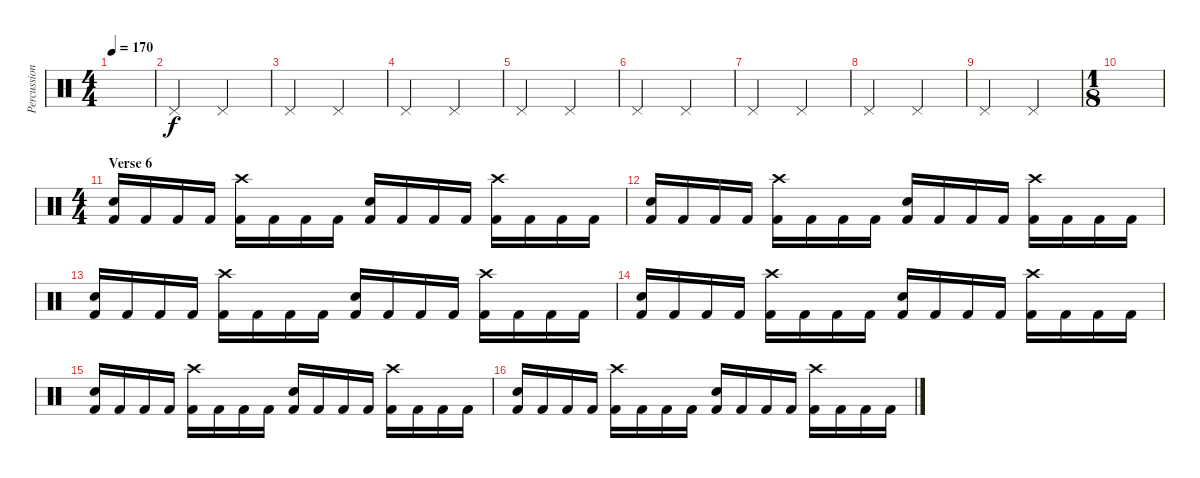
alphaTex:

\track ("Percussion" "Percussion") {instrument percussion}
\staff {score}
\articulation defaults
\ts (4 4)
\tempo 170
\clef neutral
\ks c
|
"Pedal Hi-Hat (hit)".2 "Pedal Hi-Hat (hit)".2 |
"Pedal Hi-Hat (hit)".2 "Pedal Hi-Hat (hit)".2 |
"Pedal Hi-Hat (hit)".2 "Pedal Hi-Hat (hit)".2 |
"Pedal Hi-Hat (hit)".2 "Pedal Hi-Hat (hit)".2 |
"Pedal Hi-Hat (hit)".2 "Pedal Hi-Hat (hit)".2 |
"Pedal Hi-Hat (hit)".2 "Pedal Hi-Hat (hit)".2 |
"Pedal Hi-Hat (hit)".2 "Pedal Hi-Hat (hit)".2 |
"Pedal Hi-Hat (hit)".2 "Pedal Hi-Hat (hit)".2 |
\ts (1 8)
|
\ts (4 4)
\section ("" "Verse 6")
("Electric Snare (hit)" "Kick (hit) 2").16 "Kick (hit) 2".16 "Kick (hit) 2".16 "Kick (hit) 2".16 ("Crash high (hit)" "Kick (hit) 2").16 "Kick (hit) 2".16 "Kick (hit) 2".16 "Kick (hit) 2".16 ("Electric Snare (hit)" "Kick (hit) 2").16 "Kick (hit) 2".16 "Kick (hit) 2".16 "Kick (hit) 2".16 ("Crash high (hit)" "Kick (hit) 2").16 "Kick (hit) 2".16 "Kick (hit) 2".16 "Kick (hit) 2".16 |
("Electric Snare (hit)" "Kick (hit) 2").16 "Kick (hit) 2".16 "Kick (hit) 2".16 "Kick (hit) 2".16 ("Crash high (hit)" "Kick (hit) 2").16 "Kick (hit) 2".16 "Kick (hit) 2".16 "Kick (hit) 2".16 ("Electric Snare (hit)" "Kick (hit) 2").16 "Kick (hit) 2".16 "Kick (hit) 2".16 "Kick (hit) 2".16 ("Crash high (hit)" "Kick (hit) 2").16 "Kick (hit) 2".16 "Kick (hit) 2".16 "Kick (hit) 2".16 |
("Electric Snare (hit)" "Kick (hit) 2").16 "Kick (hit) 2".16 "Kick (hit) 2".16 "Kick (hit) 2".16 ("Crash high (hit)" "Kick (hit) 2").16 "Kick (hit) 2".16 "Kick (hit) 2".16 "Kick (hit) 2".16 ("Electric Snare (hit)" "Kick (hit) 2").16 "Kick (hit) 2".16 "Kick (hit) 2".16 "Kick (hit) 2".16 ("Crash high (hit)" "Kick (hit) 2").16 "Kick (hit) 2".16 "Kick (hit) 2".16 "Kick (hit) 2".16 |
("Electric Snare (hit)" "Kick (hit) 2").16 "Kick (hit) 2".16 "Kick (hit) 2".16 "Kick (hit) 2".16 ("Crash high (hit)" "Kick (hit) 2").16 "Kick (hit) 2".16 "Kick (hit) 2".16 "Kick (hit) 2".16 ("Electric Snare (hit)" "Kick (hit) 2").16 "Kick (hit) 2".16 "Kick (hit) 2".16 "Kick (hit) 2".16 ("Crash high (hit)" "Kick (hit) 2").16 "Kick (hit) 2".16 "Kick (hit) 2".16 "Kick (hit) 2".16 |
("Electric Snare (hit)" "Kick (hit) 2").16 "Kick (hit) 2".16 "Kick (hit) 2".16 "Kick (hit) 2".16 ("Crash high (hit)" "Kick (hit) 2").16 "Kick (hit) 2".16 "Kick (hit) 2".16 "Kick (hit) 2".16 ("Electric Snare (hit)" "Kick (hit) 2").16 "Kick (hit) 2".16 "Kick (hit) 2".16 "Kick (hit) 2".16 ("Crash high (hit)" "Kick (hit) 2").16 "Kick (hit) 2".16 "Kick (hit) 2".16 "Kick (hit) 2".16 |
("Electric Snare (hit)" "Kick (hit) 2").16 "Kick (hit) 2".16 "Kick (hit) 2".16 "Kick (hit) 2".16 ("Crash high (hit)" "Kick (hit) 2").16 "Kick (hit) 2".16 "Kick (hit) 2".16 "Kick (hit) 2".16 ("Electric Snare (hit)" "Kick (hit) 2").16 "Kick (hit) 2".16 "Kick (hit) 2".16 "Kick (hit) 2".16 ("Crash high (hit)" "Kick (hit) 2").16 "Kick (hit) 2".16 "Kick (hit) 2".16 "Kick (hit) 2".16
